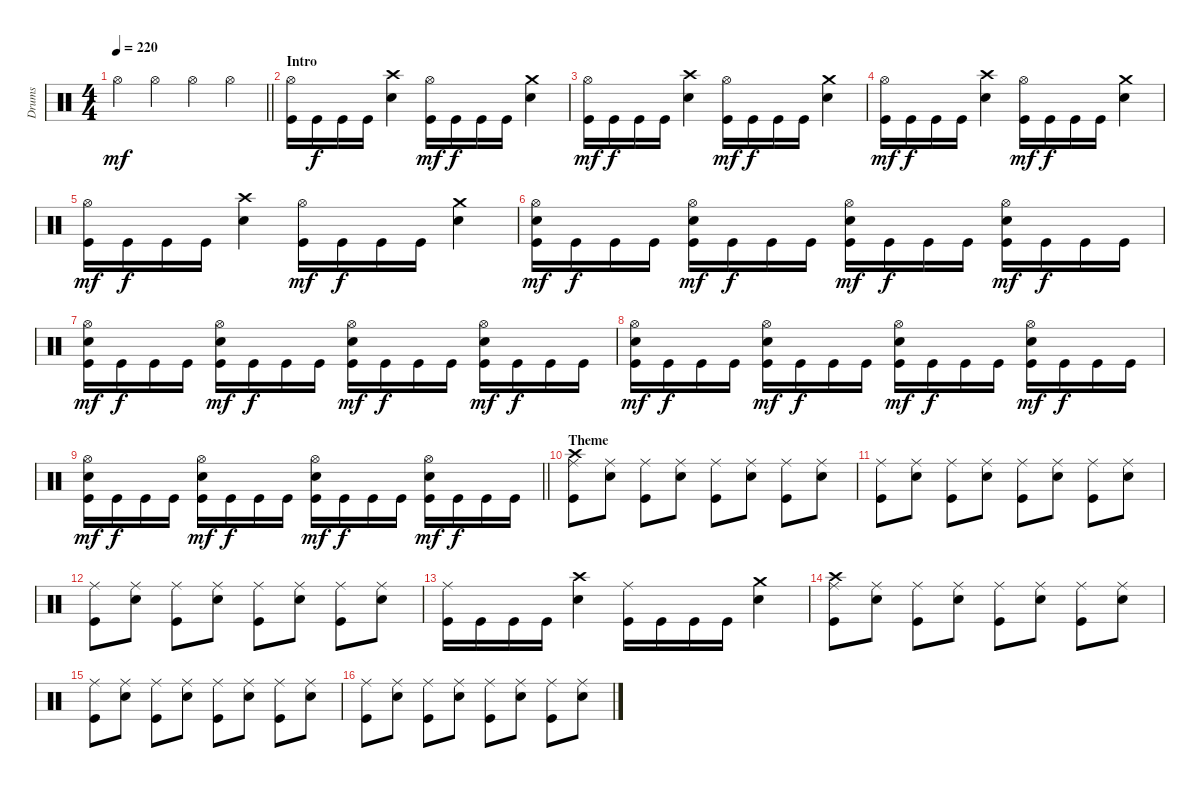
\track ("Drums" "Drums") {instrument percussion}
\staff {score}
\articulation defaults
\ts (4 4)
\tempo 220
\clef neutral
\barLineRight lightlight
\ks c "Hi-Hat (open)".4{dy mf} "Hi-Hat (open)".4 "Hi-Hat (open)".4 "Hi-Hat (open)".4
|
\section ("" "Intro")
("Hi-Hat (open)" "Kick (hit)").16 "Kick (hit)".16{dy f} "Kick (hit)".16 "Kick (hit)".16 ("Crash high (hit)" "Electric Snare (hit)").4 ("Hi-Hat (open)" "Kick (hit)").16{dy mf} "Kick (hit)".16{dy f} "Kick (hit)".16 "Kick (hit)".16 ("Crash medium (hit)" "Electric Snare (hit)").4 |
("Hi-Hat (open)" "Kick (hit)").16{dy mf} "Kick (hit)".16{dy f} "Kick (hit)".16 "Kick (hit)".16 ("Crash high (hit)" "Electric Snare (hit)").4 ("Hi-Hat (open)" "Kick (hit)").16{dy mf} "Kick (hit)".16{dy f} "Kick (hit)".16 "Kick (hit)".16 ("Crash medium (hit)" "Electric Snare (hit)").4 |
("Hi-Hat (open)" "Kick (hit)").16{dy mf} "Kick (hit)".16{dy f} "Kick (hit)".16 "Kick (hit)".16 ("Crash high (hit)" "Electric Snare (hit)").4 ("Hi-Hat (open)" "Kick (hit)").16{dy mf} "Kick (hit)".16{dy f} "Kick (hit)".16 "Kick (hit)".16 ("Crash medium (hit)" "Electric Snare (hit)").4 |
("Hi-Hat (open)" "Kick (hit)").16{dy mf} "Kick (hit)".16{dy f} "Kick (hit)".16 "Kick (hit)".16 ("Crash high (hit)" "Electric Snare (hit)").4 ("Hi-Hat (open)" "Kick (hit)").16{dy mf} "Kick (hit)".16{dy f} "Kick (hit)".16 "Kick (hit)".16 ("Crash medium (hit)" "Electric Snare (hit)").4 |
("Hi-Hat (open)" "Electric Snare (hit)" "Kick (hit)").16{dy mf} "Kick (hit)".16{dy f} "Kick (hit)".16 "Kick (hit)".16 ("Hi-Hat (open)" "Electric Snare (hit)" "Kick (hit)").16{dy mf} "Kick (hit)".16{dy f} "Kick (hit)".16 "Kick (hit)".16 ("Hi-Hat (open)" "Electric Snare (hit)" "Kick (hit)").16{dy mf} "Kick (hit)".16{dy f} "Kick (hit)".16 "Kick (hit)".16 ("Hi-Hat (open)" "Electric Snare (hit)" "Kick (hit)").16{dy mf} "Kick (hit)".16{dy f} "Kick (hit)".16 "Kick (hit)".16 |
("Hi-Hat (open)" "Electric Snare (hit)" "Kick (hit)").16{dy mf} "Kick (hit)".16{dy f} "Kick (hit)".16 "Kick (hit)".16 ("Hi-Hat (open)" "Electric Snare (hit)" "Kick (hit)").16{dy mf} "Kick (hit)".16{dy f} "Kick (hit)".16 "Kick (hit)".16 ("Hi-Hat (open)" "Electric Snare (hit)" "Kick (hit)").16{dy mf} "Kick (hit)".16{dy f} "Kick (hit)".16 "Kick (hit)".16 ("Hi-Hat (open)" "Electric Snare (hit)" "Kick (hit)").16{dy mf} "Kick (hit)".16{dy f} "Kick (hit)".16 "Kick (hit)".16 |
("Hi-Hat (open)" "Electric Snare (hit)" "Kick (hit)").16{dy mf} "Kick (hit)".16{dy f} "Kick (hit)".16 "Kick (hit)".16 ("Hi-Hat (open)" "Electric Snare (hit)" "Kick (hit)").16{dy mf} "Kick (hit)".16{dy f} "Kick (hit)".16 "Kick (hit)".16 ("Hi-Hat (open)" "Electric Snare (hit)" "Kick (hit)").16{dy mf} "Kick (hit)".16{dy f} "Kick (hit)".16 "Kick (hit)".16 ("Hi-Hat (open)" "Electric Snare (hit)" "Kick (hit)").16{dy mf} "Kick (hit)".16{dy f} "Kick (hit)".16 "Kick (hit)".16 |
\barLineRight lightlight
("Hi-Hat (open)" "Electric Snare (hit)" "Kick (hit)").16{dy mf} "Kick (hit)".16{dy f} "Kick (hit)".16 "Kick (hit)".16 ("Hi-Hat (open)" "Electric Snare (hit)" "Kick (hit)").16{dy mf} "Kick (hit)".16{dy f} "Kick (hit)".16 "Kick (hit)".16 ("Hi-Hat (open)" "Electric Snare (hit)" "Kick (hit)").16{dy mf} "Kick (hit)".16{dy f} "Kick (hit)".16 "Kick (hit)".16 ("Hi-Hat (open)" "Electric Snare (hit)" "Kick (hit)").16{dy mf} "Kick (hit)".16{dy f} "Kick (hit)".16 "Kick (hit)".16 |
\section ("" "Theme")
("Crash high (hit)" "Ride (middle)" "Kick (hit)").8 ("Ride (middle)" "Electric Snare (hit)").8 ("Ride (middle)" "Kick (hit)").8 ("Ride (middle)" "Electric Snare (hit)").8 ("Ride (middle)" "Kick (hit)").8 ("Ride (middle)" "Electric Snare (hit)").8 ("Ride (middle)" "Kick (hit)").8 ("Ride (middle)" "Electric Snare (hit)").8 |
("Ride (middle)" "Kick (hit)").8 ("Ride (middle)" "Electric Snare (hit)").8 ("Ride (middle)" "Kick (hit)").8 ("Ride (middle)" "Electric Snare (hit)").8 ("Ride (middle)" "Kick (hit)").8 ("Ride (middle)" "Electric Snare (hit)").8 ("Ride (middle)" "Kick (hit)").8 ("Ride (middle)" "Electric Snare (hit)").8 |
("Ride (middle)" "Kick (hit)").8 ("Ride (middle)" "Electric Snare (hit)").8 ("Ride (middle)" "Kick (hit)").8 ("Ride (middle)" "Electric Snare (hit)").8 ("Ride (middle)" "Kick (hit)").8 ("Ride (middle)" "Electric Snare (hit)").8 ("Ride (middle)" "Kick (hit)").8 ("Ride (middle)" "Electric Snare (hit)").8 |
("Ride (middle)" "Kick (hit)").16 "Kick (hit)".16 "Kick (hit)".16 "Kick (hit)".16 ("Crash high (hit)" "Electric Snare (hit)").4 ("Ride (middle)" "Kick (hit)").16 "Kick (hit)".16 "Kick (hit)".16 "Kick (hit)".16 ("Crash medium (hit)" "Electric Snare (hit)").4 |
("Crash high (hit)" "Ride (middle)" "Kick (hit)").8 ("Ride (middle)" "Electric Snare (hit)").8 ("Ride (middle)" "Kick (hit)").8 ("Ride (middle)" "Electric Snare (hit)").8 ("Ride (middle)" "Kick (hit)").8 ("Ride (middle)" "Electric Snare (hit)").8 ("Ride (middle)" "Kick (hit)").8 ("Ride (middle)" "Electric Snare (hit)").8 |
("Ride (middle)" "Kick (hit)").8 ("Ride (middle)" "Electric Snare (hit)").8 ("Ride (middle)" "Kick (hit)").8 ("Ride (middle)" "Electric Snare (hit)").8 ("Ride (middle)" "Kick (hit)").8 ("Ride (middle)" "Electric Snare (hit)").8 ("Ride (middle)" "Kick (hit)").8 ("Ride (middle)" "Electric Snare (hit)").8 |
("Ride (middle)" "Kick (hit)").8 ("Ride (middle)" "Electric Snare (hit)").8 ("Ride (middle)" "Kick (hit)").8 ("Ride (middle)" "Electric Snare (hit)").8 ("Ride (middle)" "Kick (hit)").8 ("Ride (middle)" "Electric Snare (hit)").8 ("Ride (middle)" "Kick (hit)").8 ("Ride (middle)" "Electric Snare (hit)").8
